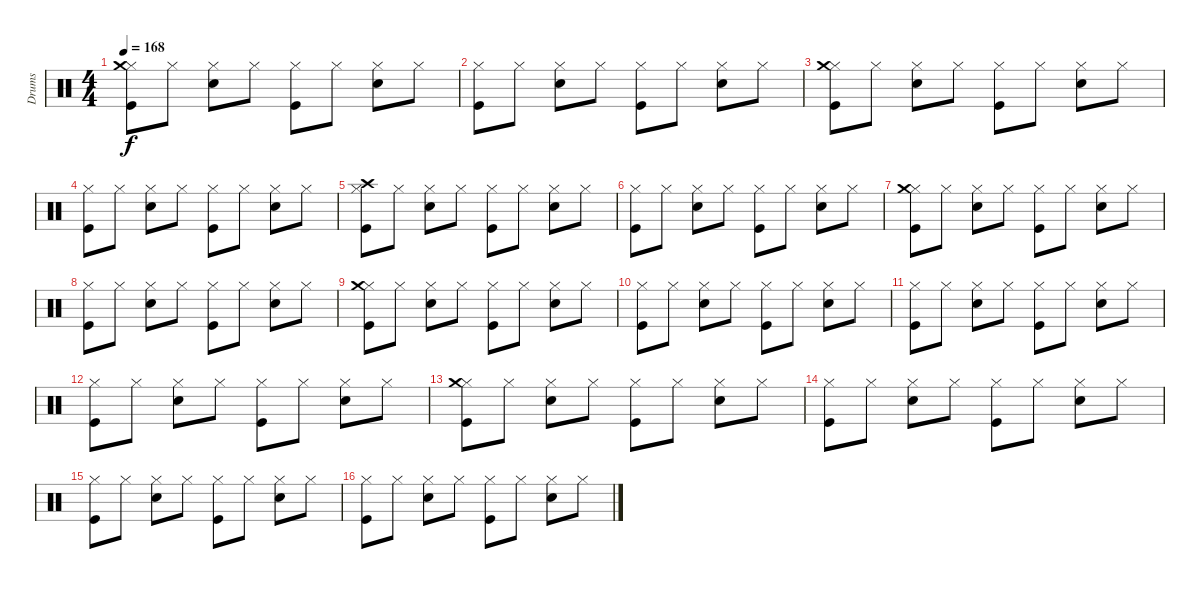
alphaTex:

\track ("Drums" "Drums") {instrument percussion}
\staff {score}
\articulation defaults
\ts (4 4)
\tempo 168
\clef neutral
\ks c
("Kick (hit)" "Hi-Hat (closed)" "Crash medium (hit)").8{dy f} "Hi-Hat (closed)".8 ("Snare (hit) 2" "Hi-Hat (closed)").8 "Hi-Hat (closed)".8 ("Kick (hit)" "Hi-Hat (closed)").8 "Hi-Hat (closed)".8 ("Snare (hit) 2" "Hi-Hat (closed)").8 "Hi-Hat (closed)".8 |
("Kick (hit)" "Hi-Hat (closed)").8 "Hi-Hat (closed)".8 ("Snare (hit) 2" "Hi-Hat (closed)").8 "Hi-Hat (closed)".8 ("Kick (hit)" "Hi-Hat (closed)").8 "Hi-Hat (closed)".8 ("Snare (hit) 2" "Hi-Hat (closed)").8 "Hi-Hat (closed)".8 |
("Kick (hit)" "Hi-Hat (closed)" "Crash medium (hit)").8 "Hi-Hat (closed)".8 ("Snare (hit) 2" "Hi-Hat (closed)").8 "Hi-Hat (closed)".8 ("Kick (hit)" "Hi-Hat (closed)").8 "Hi-Hat (closed)".8 ("Snare (hit) 2" "Hi-Hat (closed)").8 "Hi-Hat (closed)".8 |
("Kick (hit)" "Hi-Hat (closed)").8 "Hi-Hat (closed)".8 ("Snare (hit) 2" "Hi-Hat (closed)").8 "Hi-Hat (closed)".8 ("Kick (hit)" "Hi-Hat (closed)").8 "Hi-Hat (closed)".8 ("Snare (hit) 2" "Hi-Hat (closed)").8 "Hi-Hat (closed)".8 |
("Kick (hit)" "Hi-Hat (closed)" "Crash high (hit)").8 "Hi-Hat (closed)".8 ("Snare (hit) 2" "Hi-Hat (closed)").8 "Hi-Hat (closed)".8 ("Kick (hit)" "Hi-Hat (closed)").8 "Hi-Hat (closed)".8 ("Snare (hit) 2" "Hi-Hat (closed)").8 "Hi-Hat (closed)".8 |
("Kick (hit)" "Hi-Hat (closed)").8 "Hi-Hat (closed)".8 ("Snare (hit) 2" "Hi-Hat (closed)").8 "Hi-Hat (closed)".8 ("Kick (hit)" "Hi-Hat (closed)").8 "Hi-Hat (closed)".8 ("Snare (hit) 2" "Hi-Hat (closed)").8 "Hi-Hat (closed)".8 |
("Kick (hit)" "Hi-Hat (closed)" "Crash medium (hit)").8 "Hi-Hat (closed)".8 ("Snare (hit) 2" "Hi-Hat (closed)").8 "Hi-Hat (closed)".8 ("Kick (hit)" "Hi-Hat (closed)").8 "Hi-Hat (closed)".8 ("Snare (hit) 2" "Hi-Hat (closed)").8 "Hi-Hat (closed)".8 |
("Kick (hit)" "Hi-Hat (closed)").8 "Hi-Hat (closed)".8 ("Snare (hit) 2" "Hi-Hat (closed)").8 "Hi-Hat (closed)".8 ("Kick (hit)" "Hi-Hat (closed)").8 "Hi-Hat (closed)".8 ("Snare (hit) 2" "Hi-Hat (closed)").8 "Hi-Hat (closed)".8 |
("Kick (hit)" "Hi-Hat (closed)" "Crash medium (hit)").8 "Hi-Hat (closed)".8 ("Snare (hit) 2" "Hi-Hat (closed)").8 "Hi-Hat (closed)".8 ("Kick (hit)" "Hi-Hat (closed)").8 "Hi-Hat (closed)".8 ("Snare (hit) 2" "Hi-Hat (closed)").8 "Hi-Hat (closed)".8 |
("Kick (hit)" "Hi-Hat (closed)").8 "Hi-Hat (closed)".8 ("Snare (hit) 2" "Hi-Hat (closed)").8 "Hi-Hat (closed)".8 ("Kick (hit)" "Hi-Hat (closed)").8 "Hi-Hat (closed)".8 ("Snare (hit) 2" "Hi-Hat (closed)").8 "Hi-Hat (closed)".8 |
("Kick (hit)" "Hi-Hat (closed)").8 "Hi-Hat (closed)".8 ("Snare (hit) 2" "Hi-Hat (closed)").8 "Hi-Hat (closed)".8 ("Kick (hit)" "Hi-Hat (closed)").8 "Hi-Hat (closed)".8 ("Snare (hit) 2" "Hi-Hat (closed)").8 "Hi-Hat (closed)".8 |
("Kick (hit)" "Hi-Hat (closed)").8 "Hi-Hat (closed)".8 ("Snare (hit) 2" "Hi-Hat (closed)").8 "Hi-Hat (closed)".8 ("Kick (hit)" "Hi-Hat (closed)").8 "Hi-Hat (closed)".8 ("Snare (hit) 2" "Hi-Hat (closed)").8 "Hi-Hat (closed)".8 |
("Kick (hit)" "Hi-Hat (closed)" "Crash medium (hit)").8 "Hi-Hat (closed)".8 ("Snare (hit) 2" "Hi-Hat (closed)").8 "Hi-Hat (closed)".8 ("Kick (hit)" "Hi-Hat (closed)").8 "Hi-Hat (closed)".8 ("Snare (hit) 2" "Hi-Hat (closed)").8 "Hi-Hat (closed)".8 |
("Kick (hit)" "Hi-Hat (closed)").8 "Hi-Hat (closed)".8 ("Snare (hit) 2" "Hi-Hat (closed)").8 "Hi-Hat (closed)".8 ("Kick (hit)" "Hi-Hat (closed)").8 "Hi-Hat (closed)".8 ("Snare (hit) 2" "Hi-Hat (closed)").8 "Hi-Hat (closed)".8 |
("Kick (hit)" "Hi-Hat (closed)").8 "Hi-Hat (closed)".8 ("Snare (hit) 2" "Hi-Hat (closed)").8 "Hi-Hat (closed)".8 ("Kick (hit)" "Hi-Hat (closed)").8 "Hi-Hat (closed)".8 ("Snare (hit) 2" "Hi-Hat (closed)").8 "Hi-Hat (closed)".8 |
("Kick (hit)" "Hi-Hat (closed)").8 "Hi-Hat (closed)".8 ("Snare (hit) 2" "Hi-Hat (closed)").8 "Hi-Hat (closed)".8 ("Kick (hit)" "Hi-Hat (closed)").8 "Hi-Hat (closed)".8 ("Snare (hit) 2" "Hi-Hat (closed)").8 "Hi-Hat (closed)".8
